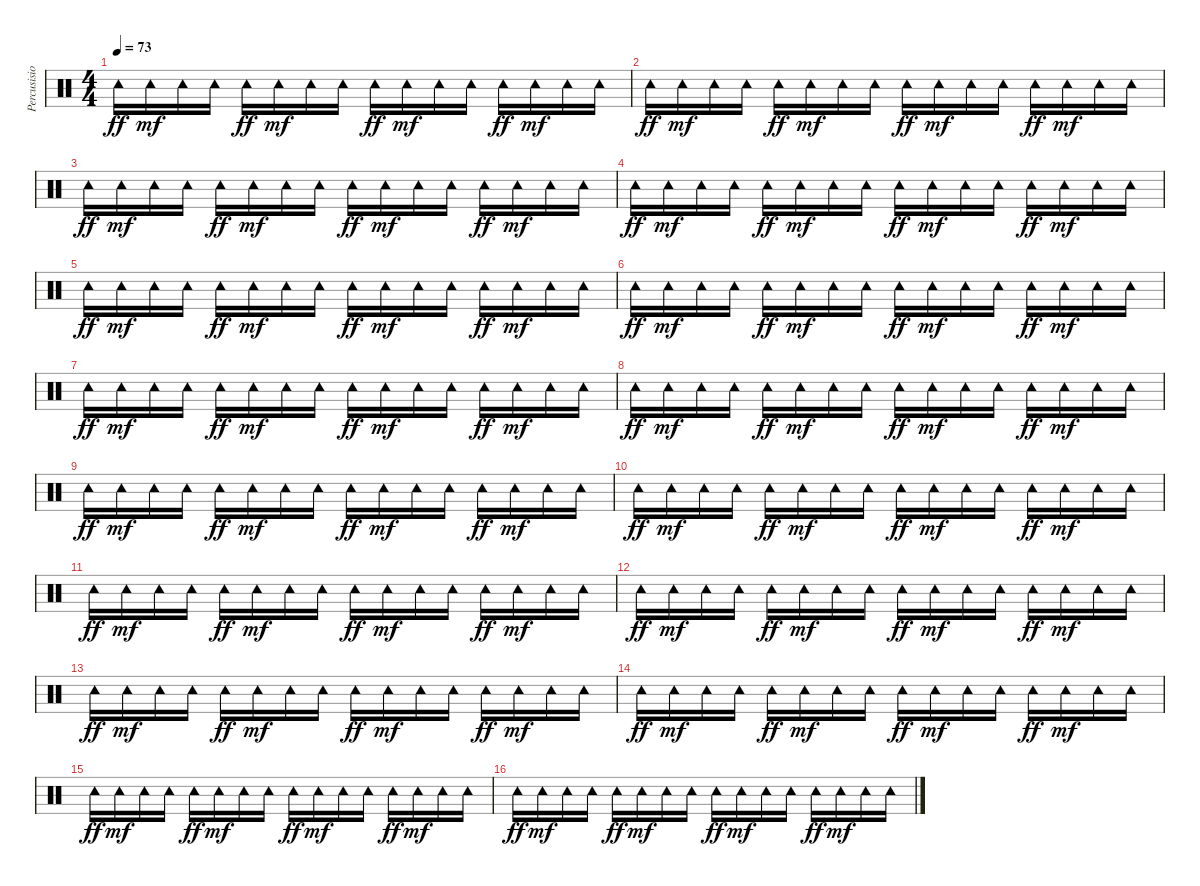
\track ("Percusision" "Percusisio") {instrument percussion}
\staff {score}
\articulation defaults
\ts (4 4)
\tempo 73
\clef neutral
\ks c "Tambourine (hit)".16{dy ff} "Tambourine (hit)".16{dy mf} "Tambourine (hit)".16 "Tambourine (hit)".16 "Tambourine (hit)".16{dy ff} "Tambourine (hit)".16{dy mf} "Tambourine (hit)".16 "Tambourine (hit)".16 "Tambourine (hit)".16{dy ff} "Tambourine (hit)".16{dy mf} "Tambourine (hit)".16 "Tambourine (hit)".16 "Tambourine (hit)".16{dy ff} "Tambourine (hit)".16{dy mf} "Tambourine (hit)".16 "Tambourine (hit)".16
|
"Tambourine (hit)".16{dy ff} "Tambourine (hit)".16{dy mf} "Tambourine (hit)".16 "Tambourine (hit)".16 "Tambourine (hit)".16{dy ff} "Tambourine (hit)".16{dy mf} "Tambourine (hit)".16 "Tambourine (hit)".16 "Tambourine (hit)".16{dy ff} "Tambourine (hit)".16{dy mf} "Tambourine (hit)".16 "Tambourine (hit)".16 "Tambourine (hit)".16{dy ff} "Tambourine (hit)".16{dy mf} "Tambourine (hit)".16 "Tambourine (hit)".16 |
"Tambourine (hit)".16{dy ff} "Tambourine (hit)".16{dy mf} "Tambourine (hit)".16 "Tambourine (hit)".16 "Tambourine (hit)".16{dy ff} "Tambourine (hit)".16{dy mf} "Tambourine (hit)".16 "Tambourine (hit)".16 "Tambourine (hit)".16{dy ff} "Tambourine (hit)".16{dy mf} "Tambourine (hit)".16 "Tambourine (hit)".16 "Tambourine (hit)".16{dy ff} "Tambourine (hit)".16{dy mf} "Tambourine (hit)".16 "Tambourine (hit)".16 |
"Tambourine (hit)".16{dy ff} "Tambourine (hit)".16{dy mf} "Tambourine (hit)".16 "Tambourine (hit)".16 "Tambourine (hit)".16{dy ff} "Tambourine (hit)".16{dy mf} "Tambourine (hit)".16 "Tambourine (hit)".16 "Tambourine (hit)".16{dy ff} "Tambourine (hit)".16{dy mf} "Tambourine (hit)".16 "Tambourine (hit)".16 "Tambourine (hit)".16{dy ff} "Tambourine (hit)".16{dy mf} "Tambourine (hit)".16 "Tambourine (hit)".16 |
"Tambourine (hit)".16{dy ff} "Tambourine (hit)".16{dy mf} "Tambourine (hit)".16 "Tambourine (hit)".16 "Tambourine (hit)".16{dy ff} "Tambourine (hit)".16{dy mf} "Tambourine (hit)".16 "Tambourine (hit)".16 "Tambourine (hit)".16{dy ff} "Tambourine (hit)".16{dy mf} "Tambourine (hit)".16 "Tambourine (hit)".16 "Tambourine (hit)".16{dy ff} "Tambourine (hit)".16{dy mf} "Tambourine (hit)".16 "Tambourine (hit)".16 |
"Tambourine (hit)".16{dy ff} "Tambourine (hit)".16{dy mf} "Tambourine (hit)".16 "Tambourine (hit)".16 "Tambourine (hit)".16{dy ff} "Tambourine (hit)".16{dy mf} "Tambourine (hit)".16 "Tambourine (hit)".16 "Tambourine (hit)".16{dy ff} "Tambourine (hit)".16{dy mf} "Tambourine (hit)".16 "Tambourine (hit)".16 "Tambourine (hit)".16{dy ff} "Tambourine (hit)".16{dy mf} "Tambourine (hit)".16 "Tambourine (hit)".16 |
"Tambourine (hit)".16{dy ff} "Tambourine (hit)".16{dy mf} "Tambourine (hit)".16 "Tambourine (hit)".16 "Tambourine (hit)".16{dy ff} "Tambourine (hit)".16{dy mf} "Tambourine (hit)".16 "Tambourine (hit)".16 "Tambourine (hit)".16{dy ff} "Tambourine (hit)".16{dy mf} "Tambourine (hit)".16 "Tambourine (hit)".16 "Tambourine (hit)".16{dy ff} "Tambourine (hit)".16{dy mf} "Tambourine (hit)".16 "Tambourine (hit)".16 |
"Tambourine (hit)".16{dy ff} "Tambourine (hit)".16{dy mf} "Tambourine (hit)".16 "Tambourine (hit)".16 "Tambourine (hit)".16{dy ff} "Tambourine (hit)".16{dy mf} "Tambourine (hit)".16 "Tambourine (hit)".16 "Tambourine (hit)".16{dy ff} "Tambourine (hit)".16{dy mf} "Tambourine (hit)".16 "Tambourine (hit)".16 "Tambourine (hit)".16{dy ff} "Tambourine (hit)".16{dy mf} "Tambourine (hit)".16 "Tambourine (hit)".16 |
"Tambourine (hit)".16{dy ff} "Tambourine (hit)".16{dy mf} "Tambourine (hit)".16 "Tambourine (hit)".16 "Tambourine (hit)".16{dy ff} "Tambourine (hit)".16{dy mf} "Tambourine (hit)".16 "Tambourine (hit)".16 "Tambourine (hit)".16{dy ff} "Tambourine (hit)".16{dy mf} "Tambourine (hit)".16 "Tambourine (hit)".16 "Tambourine (hit)".16{dy ff} "Tambourine (hit)".16{dy mf} "Tambourine (hit)".16 "Tambourine (hit)".16 |
"Tambourine (hit)".16{dy ff} "Tambourine (hit)".16{dy mf} "Tambourine (hit)".16 "Tambourine (hit)".16 "Tambourine (hit)".16{dy ff} "Tambourine (hit)".16{dy mf} "Tambourine (hit)".16 "Tambourine (hit)".16 "Tambourine (hit)".16{dy ff} "Tambourine (hit)".16{dy mf} "Tambourine (hit)".16 "Tambourine (hit)".16 "Tambourine (hit)".16{dy ff} "Tambourine (hit)".16{dy mf} "Tambourine (hit)".16 "Tambourine (hit)".16 |
"Tambourine (hit)".16{dy ff} "Tambourine (hit)".16{dy mf} "Tambourine (hit)".16 "Tambourine (hit)".16 "Tambourine (hit)".16{dy ff} "Tambourine (hit)".16{dy mf} "Tambourine (hit)".16 "Tambourine (hit)".16 "Tambourine (hit)".16{dy ff} "Tambourine (hit)".16{dy mf} "Tambourine (hit)".16 "Tambourine (hit)".16 "Tambourine (hit)".16{dy ff} "Tambourine (hit)".16{dy mf} "Tambourine (hit)".16 "Tambourine (hit)".16 |
"Tambourine (hit)".16{dy ff} "Tambourine (hit)".16{dy mf} "Tambourine (hit)".16 "Tambourine (hit)".16 "Tambourine (hit)".16{dy ff} "Tambourine (hit)".16{dy mf} "Tambourine (hit)".16 "Tambourine (hit)".16 "Tambourine (hit)".16{dy ff} "Tambourine (hit)".16{dy mf} "Tambourine (hit)".16 "Tambourine (hit)".16 "Tambourine (hit)".16{dy ff} "Tambourine (hit)".16{dy mf} "Tambourine (hit)".16 "Tambourine (hit)".16 |
"Tambourine (hit)".16{dy ff} "Tambourine (hit)".16{dy mf} "Tambourine (hit)".16 "Tambourine (hit)".16 "Tambourine (hit)".16{dy ff} "Tambourine (hit)".16{dy mf} "Tambourine (hit)".16 "Tambourine (hit)".16 "Tambourine (hit)".16{dy ff} "Tambourine (hit)".16{dy mf} "Tambourine (hit)".16 "Tambourine (hit)".16 "Tambourine (hit)".16{dy ff} "Tambourine (hit)".16{dy mf} "Tambourine (hit)".16 "Tambourine (hit)".16 |
"Tambourine (hit)".16{dy ff} "Tambourine (hit)".16{dy mf} "Tambourine (hit)".16 "Tambourine (hit)".16 "Tambourine (hit)".16{dy ff} "Tambourine (hit)".16{dy mf} "Tambourine (hit)".16 "Tambourine (hit)".16 "Tambourine (hit)".16{dy ff} "Tambourine (hit)".16{dy mf} "Tambourine (hit)".16 "Tambourine (hit)".16 "Tambourine (hit)".16{dy ff} "Tambourine (hit)".16{dy mf} "Tambourine (hit)".16 "Tambourine (hit)".16 |
"Tambourine (hit)".16{dy ff} "Tambourine (hit)".16{dy mf} "Tambourine (hit)".16 "Tambourine (hit)".16 "Tambourine (hit)".16{dy ff} "Tambourine (hit)".16{dy mf} "Tambourine (hit)".16 "Tambourine (hit)".16 "Tambourine (hit)".16{dy ff} "Tambourine (hit)".16{dy mf} "Tambourine (hit)".16 "Tambourine (hit)".16 "Tambourine (hit)".16{dy ff} "Tambourine (hit)".16{dy mf} "Tambourine (hit)".16 "Tambourine (hit)".16 |
"Tambourine (hit)".16{dy ff} "Tambourine (hit)".16{dy mf} "Tambourine (hit)".16 "Tambourine (hit)".16 "Tambourine (hit)".16{dy ff} "Tambourine (hit)".16{dy mf} "Tambourine (hit)".16 "Tambourine (hit)".16 "Tambourine (hit)".16{dy ff} "Tambourine (hit)".16{dy mf} "Tambourine (hit)".16 "Tambourine (hit)".16 "Tambourine (hit)".16{dy ff} "Tambourine (hit)".16{dy mf} "Tambourine (hit)".16 "Tambourine (hit)".16
